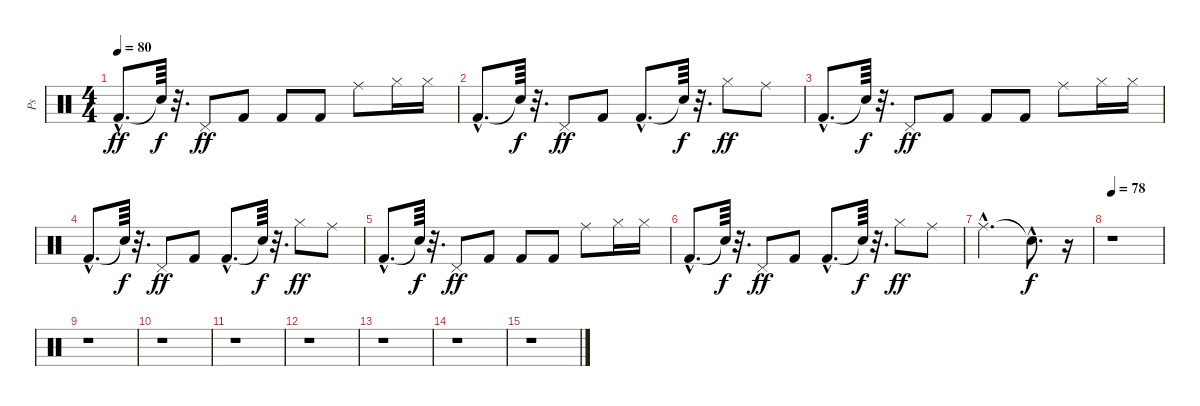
\track ("Ps" "Ps") {instrument percussion}
\staff {score}
\articulation defaults
\ts (4 4)
\tempo 80
\clef neutral
\ks c "Kick (hit) 2"{hac}.8{d dy ff} "Snare (hit)"{t}.64{dy f}
r.32{d} "Pedal Hi-Hat (hit)".8{dy ff} "Kick (hit) 2".8 "Kick (hit) 2".8 "Kick (hit) 2".8 "Ride (middle)".8 "Hi-Hat (closed)".16 "Hi-Hat (closed)".16 |
"Kick (hit) 2"{hac}.8{d} "Snare (hit)"{t}.64{dy f} r.32{d} "Pedal Hi-Hat (hit)".8{dy ff} "Kick (hit) 2".8 "Kick (hit) 2"{hac}.8{d} "Snare (hit)"{t}.64{dy f} r.32{d} "Hi-Hat (closed)".8{dy ff} "Ride (middle)".8 |
"Kick (hit) 2"{hac}.8{d} "Snare (hit)"{t}.64{dy f} r.32{d} "Pedal Hi-Hat (hit)".8{dy ff} "Kick (hit) 2".8 "Kick (hit) 2".8 "Kick (hit) 2".8 "Ride (middle)".8 "Hi-Hat (closed)".16 "Hi-Hat (closed)".16 |
"Kick (hit) 2"{hac}.8{d} "Snare (hit)"{t}.64{dy f} r.32{d} "Pedal Hi-Hat (hit)".8{dy ff} "Kick (hit) 2".8 "Kick (hit) 2"{hac}.8{d} "Snare (hit)"{t}.64{dy f} r.32{d} "Hi-Hat (closed)".8{dy ff} "Ride (middle)".8 |
"Kick (hit) 2"{hac}.8{d} "Snare (hit)"{t}.64{dy f} r.32{d} "Pedal Hi-Hat (hit)".8{dy ff} "Kick (hit) 2".8 "Kick (hit) 2".8 "Kick (hit) 2".8 "Ride (middle)".8 "Hi-Hat (closed)".16 "Hi-Hat (closed)".16 |
"Kick (hit) 2"{hac}.8{d} "Snare (hit)"{t}.64{dy f} r.32{d} "Pedal Hi-Hat (hit)".8{dy ff} "Kick (hit) 2".8 "Kick (hit) 2"{hac}.8{d} "Snare (hit)"{t}.64{dy f} r.32{d} "Hi-Hat (closed)".8{dy ff} "Ride (middle)".8 |
"Ride (middle)"{hac}.2{d} "Snare (hit)"{hac t}.8{d dy f} r.16 |
\tempo 78
r.1 |
r.1 |
r.1 |
r.1 |
r.1 |
r.1 |
r.1 |
r.1
